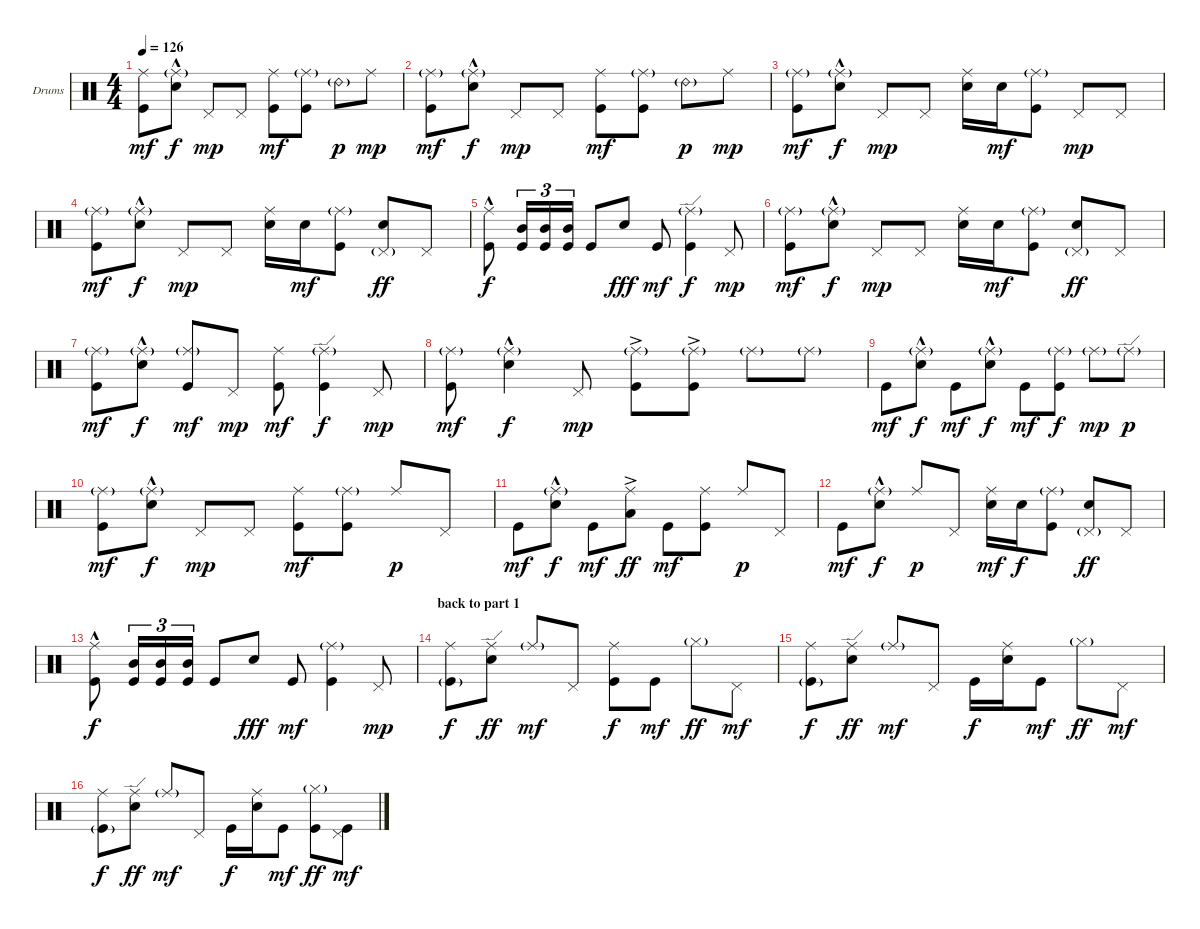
\bracketExtendMode groupsimilarinstruments
\firstSystemTrackNameOrientation horizontal
\otherSystemsTrackNameOrientation horizontal
\track ("drums - john hinch" "Drums") {instrument percussion}
\staff {score}
\articulation defaults
\ts (4 4)
\tempo 126
\clef neutral
\scale
0.333333
\ks c
("Kick (hit)" "Ride (middle)").8{dy mf} ("Snare (hit) 2"{hac} "Ride (middle)"{g}).8{dy f} "Pedal Hi-Hat (hit)".8{dy mp} "Pedal Hi-Hat (hit)".8 ("Kick (hit)" "Ride (middle)").8{dy mf} ("Kick (hit)" "Ride (middle)"{g}).8 "Ride (bell) 2"{g}.8{dy p} "Ride (middle)".8{dy mp} |
\scale
0.333333 ("Kick (hit)" "Ride (middle)"{g}).8{dy mf} ("Snare (hit) 2"{hac} "Ride (middle)"{g}).8{dy f} "Pedal Hi-Hat (hit)".8{dy mp} "Pedal Hi-Hat (hit)".8 ("Kick (hit)" "Ride (middle)").8{dy mf} ("Kick (hit)" "Ride (middle)"{g}).8 "Ride (bell) 2"{g}.8{dy p} "Ride (middle)".8{dy mp} |
\scale
0.333333 ("Kick (hit)" "Ride (middle)"{g}).8{dy mf} ("Snare (hit) 2"{hac} "Ride (middle)"{g}).8{dy f} "Pedal Hi-Hat (hit)".8{dy mp} "Pedal Hi-Hat (hit)".8 ("Ride (middle)" "Snare (hit) 2").16 "Snare (hit) 2".16{dy mf} ("Kick (hit)" "Ride (middle)"{g}).8 "Pedal Hi-Hat (hit)".8{dy mp} "Pedal Hi-Hat (hit)".8 |
\scale
0.333333 ("Kick (hit)" "Ride (middle)"{g}).8{dy mf} ("Snare (hit) 2"{hac} "Ride (middle)"{g}).8{dy f} "Pedal Hi-Hat (hit)".8{dy mp} "Pedal Hi-Hat (hit)".8 ("Ride (middle)" "Snare (hit) 2").16 "Snare (hit) 2".16{dy mf} ("Kick (hit)" "Ride (middle)"{g}).8 ("Pedal Hi-Hat (hit)"{g} "Snare (hit) 2").8{dy ff} "Pedal Hi-Hat (hit)".8 |
\scale
0.333333 ("Kick (hit)" "Ride (middle)"{hac}).8{dy f} ("Kick (hit)" "Mid Tom (hit)").16{tu (3 2)} ("Kick (hit)" "Mid Tom (hit)").16{tu (3 2)} ("Kick (hit)" "Mid Tom (hit)").16{tu (3 2)} "Kick (hit)".8 "Snare (hit) 2".8{dy fff} "Kick (hit)".8{dy mf} ("Kick (hit)" "Ride (edge)"{g}).4{dy f} "Pedal Hi-Hat (hit)".8{dy mp} |
\scale
0.333333 ("Kick (hit)" "Ride (middle)"{g}).8{dy mf} ("Snare (hit) 2"{hac} "Ride (middle)"{g}).8{dy f} "Pedal Hi-Hat (hit)".8{dy mp} "Pedal Hi-Hat (hit)".8 ("Ride (middle)" "Snare (hit) 2").16 "Snare (hit) 2".16{dy mf} ("Kick (hit)" "Ride (middle)"{g}).8 ("Pedal Hi-Hat (hit)"{g} "Snare (hit) 2").8{dy ff} "Pedal Hi-Hat (hit)".8 |
\scale
0.333333 ("Kick (hit)" "Ride (middle)"{g}).8{dy mf} ("Snare (hit) 2"{hac} "Ride (middle)"{g}).8{dy f} ("Kick (hit)" "Ride (middle)"{g}).8{dy mf} "Pedal Hi-Hat (hit)".8{dy mp} ("Kick (hit)" "Ride (middle)").8{dy mf} ("Kick (hit)" "Ride (edge)"{g}).4{dy f} "Pedal Hi-Hat (hit)".8{dy mp} |
\scale
0.333333 ("Kick (hit)" "Ride (middle)"{g}).8{dy mf} ("Snare (hit) 2"{hac} "Ride (middle)"{g}).4{dy f} "Pedal Hi-Hat (hit)".8{dy mp} ("Ride (middle)"{g} "Kick (hit)"{ac}).8 ("Ride (middle)"{g} "Kick (hit)"{ac}).8 "Ride (middle)"{g}.8 "Ride (middle)"{g}.8 |
\scale
0.333333 "Kick (hit)".8{dy mf} ("Snare (hit) 2"{hac} "Ride (middle)"{g}).8{dy f} "Kick (hit)".8{dy mf} ("Snare (hit) 2"{hac} "Ride (middle)"{g}).8{dy f} "Kick (hit)".8{dy mf} ("Kick (hit)" "Ride (middle)"{g}).8{dy f} "Ride (middle)"{g}.8{dy mp} "Ride (edge)"{g}.8{dy p} |
\scale
0.333333 ("Kick (hit)" "Ride (middle)"{g}).8{dy mf} ("Snare (hit) 2"{hac} "Ride (middle)"{g}).8{dy f} "Pedal Hi-Hat (hit)".8{dy mp} "Pedal Hi-Hat (hit)".8 ("Kick (hit)" "Ride (middle)").8{dy mf} ("Kick (hit)" "Ride (middle)"{g}).8 "Ride (middle)".8{dy p} "Pedal Hi-Hat (hit)".8 |
\scale
0.283602 "Kick (hit)".8{dy mf} ("Snare (hit) 2"{hac} "Ride (middle)"{g}).8{dy f} "Kick (hit)".8{dy mf} ("Low Tom (hit)" "Ride (middle)"{ac}).8{dy ff} "Kick (hit)".8{dy mf} ("Kick (hit)" "Ride (middle)").8 "Ride (middle)".8{dy p} "Pedal Hi-Hat (hit)".8 |
\scale
0.314708 "Kick (hit)".8{dy mf} ("Snare (hit) 2"{hac} "Ride (middle)"{g}).8{dy f} "Ride (middle)".8{dy p} "Pedal Hi-Hat (hit)".8 ("Ride (middle)" "Snare (hit) 2").16{dy mf} "Snare (hit) 2".16{dy f} ("Kick (hit)" "Ride (middle)"{g}).8 ("Pedal Hi-Hat (hit)"{g} "Snare (hit) 2").8{dy ff} "Pedal Hi-Hat (hit)".8 |
\scale
0.347725 ("Kick (hit)" "Ride (middle)"{hac}).8{dy f} ("Kick (hit)" "Mid Tom (hit)").16{tu (3 2)} ("Kick (hit)" "Mid Tom (hit)").16{tu (3 2)} ("Kick (hit)" "Mid Tom (hit)").16{tu (3 2)} "Kick (hit)".8 "Snare (hit) 2".8{dy fff} "Kick (hit)".8{dy mf} ("Kick (hit)" "Ride (middle)"{g}).4 "Pedal Hi-Hat (hit)".8{dy mp} |
\section ("" "back to part 1")
\scale
0.391473 ("Kick (hit)"{g} "Ride (middle)").8{dy f} ("Snare (hit) 2" "Ride (edge)").8{dy ff} "Ride (middle)"{g}.8{dy mf} "Pedal Hi-Hat (hit)".8 ("Kick (hit)" "Ride (middle)").8{dy f} "Kick (hit)".8{dy mf} "Hi-Hat (closed)"{g}.8{dy ff} "Pedal Hi-Hat (hit)".8{dy mf} |
\scale
0.333333 ("Kick (hit)"{g} "Ride (middle)").8{dy f} ("Snare (hit) 2" "Ride (edge)").8{dy ff} "Ride (middle)"{g}.8{dy mf} "Pedal Hi-Hat (hit)".8 "Kick (hit)".16{dy f} ("Snare (hit) 2" "Ride (middle)").16 "Kick (hit)".8{dy mf} "Hi-Hat (closed)"{g}.8{dy ff} "Pedal Hi-Hat (hit)".8{dy mf} |
\scale
0.333333 ("Kick (hit)"{g} "Ride (middle)").8{dy f} ("Snare (hit) 2" "Ride (edge)").8{dy ff} "Ride (middle)"{g}.8{dy mf} "Pedal Hi-Hat (hit)".8 "Kick (hit)".16{dy f} ("Snare (hit) 2" "Ride (middle)").16 "Kick (hit)".8{dy mf} ("Hi-Hat (closed)"{g} "Kick (hit)").8{dy ff} ("Pedal Hi-Hat (hit)" "Kick (hit)").8{dy mf}
